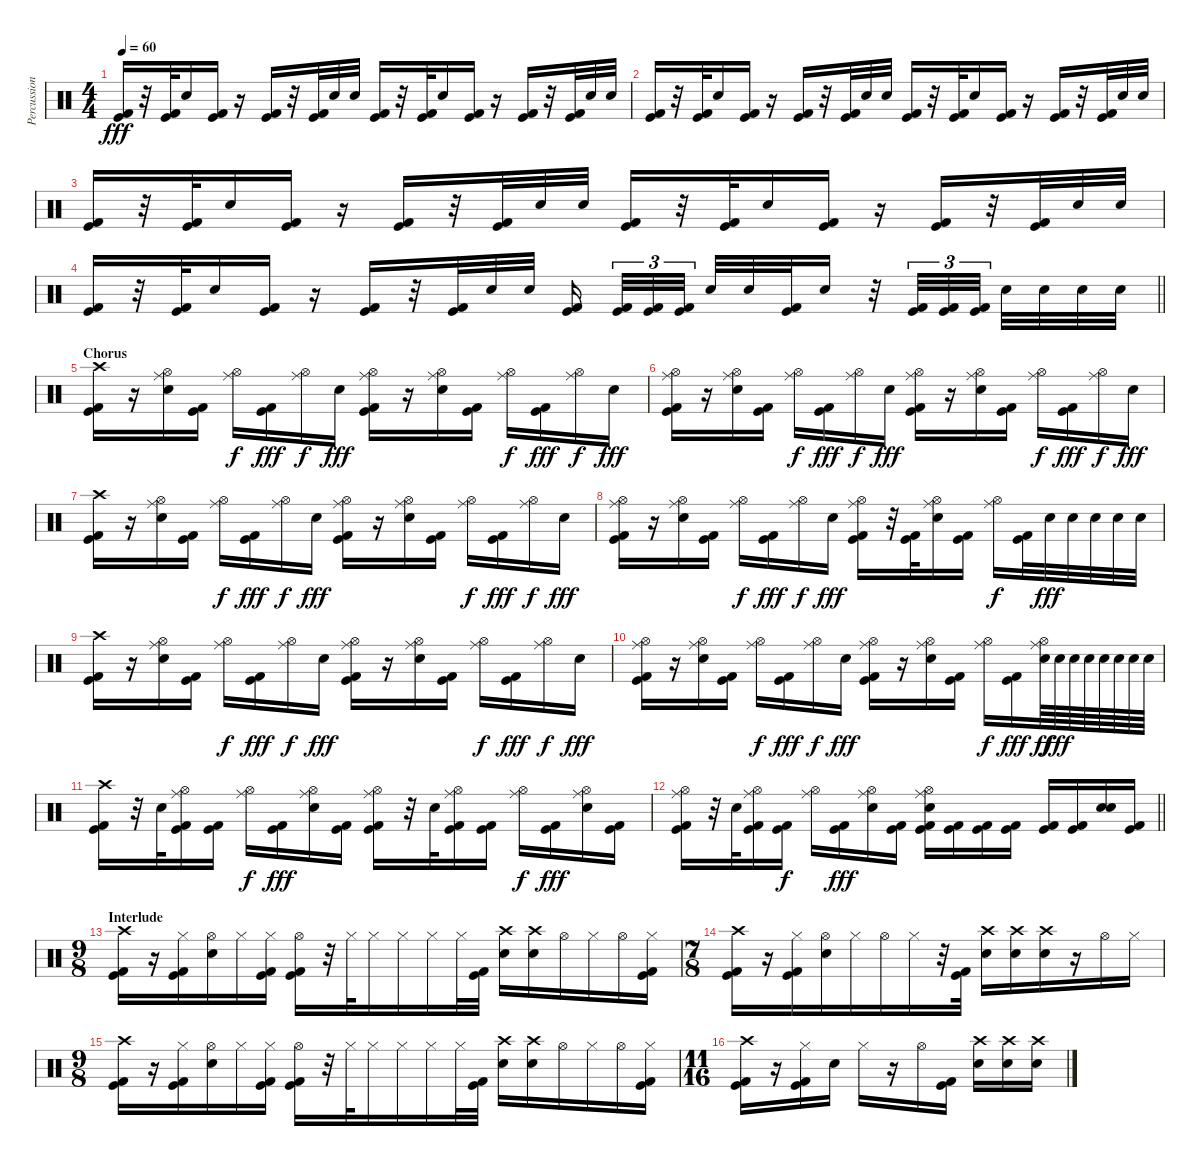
\track ("Percussion" "Percussion") {instrument percussion}
\staff {score}
\articulation defaults
\ts (4 4)
\tempo 60
\clef neutral
\ks c
("Kick (hit)" "Kick (hit) 2").16{dy fff} r.32 ("Kick (hit)" "Kick (hit) 2").32 "Electric Snare (hit)".16 ("Kick (hit)" "Kick (hit) 2").16 r.16 ("Kick (hit)" "Kick (hit) 2").16 r.32 ("Kick (hit)" "Kick (hit) 2").32 "Electric Snare (hit)".32 "Electric Snare (hit)".32 ("Kick (hit)" "Kick (hit) 2").16 r.32 ("Kick (hit)" "Kick (hit) 2").32 "Electric Snare (hit)".16 ("Kick (hit)" "Kick (hit) 2").16 r.16 ("Kick (hit)" "Kick (hit) 2").16 r.32 ("Kick (hit)" "Kick (hit) 2").32 "Electric Snare (hit)".32 "Electric Snare (hit)".32 |
("Kick (hit)" "Kick (hit) 2").16 r.32 ("Kick (hit)" "Kick (hit) 2").32 "Electric Snare (hit)".16 ("Kick (hit)" "Kick (hit) 2").16 r.16 ("Kick (hit)" "Kick (hit) 2").16 r.32 ("Kick (hit)" "Kick (hit) 2").32 "Electric Snare (hit)".32 "Electric Snare (hit)".32 ("Kick (hit)" "Kick (hit) 2").16 r.32 ("Kick (hit)" "Kick (hit) 2").32 "Electric Snare (hit)".16 ("Kick (hit)" "Kick (hit) 2").16 r.16 ("Kick (hit)" "Kick (hit) 2").16 r.32 ("Kick (hit)" "Kick (hit) 2").32 "Electric Snare (hit)".32 "Electric Snare (hit)".32 |
("Kick (hit)" "Kick (hit) 2").16 r.32 ("Kick (hit)" "Kick (hit) 2").32 "Electric Snare (hit)".16 ("Kick (hit)" "Kick (hit) 2").16 r.16 ("Kick (hit)" "Kick (hit) 2").16 r.32 ("Kick (hit)" "Kick (hit) 2").32 "Electric Snare (hit)".32 "Electric Snare (hit)".32 ("Kick (hit)" "Kick (hit) 2").16 r.32 ("Kick (hit)" "Kick (hit) 2").32 "Electric Snare (hit)".16 ("Kick (hit)" "Kick (hit) 2").16 r.16 ("Kick (hit)" "Kick (hit) 2").16 r.32 ("Kick (hit)" "Kick (hit) 2").32 "Electric Snare (hit)".32 "Electric Snare (hit)".32 |
\barLineRight lightlight
("Kick (hit)" "Kick (hit) 2").16 r.32 ("Kick (hit)" "Kick (hit) 2").32 "Electric Snare (hit)".16 ("Kick (hit)" "Kick (hit) 2").16 r.16 ("Kick (hit)" "Kick (hit) 2").16 r.32 ("Kick (hit)" "Kick (hit) 2").32 "Electric Snare (hit)".32 "Electric Snare (hit)".32 ("Kick (hit)" "Kick (hit) 2").16{beam splitsecondary} ("Kick (hit)" "Kick (hit) 2").32{tu (3 2)} ("Kick (hit)" "Kick (hit) 2").32{tu (3 2)} ("Kick (hit)" "Kick (hit) 2").32{tu (3 2) beam splitsecondary} "Electric Snare (hit)".32 "Electric Snare (hit)".32 ("Kick (hit)" "Kick (hit) 2").32 "Electric Snare (hit)".16 r.32 ("Kick (hit)" "Kick (hit) 2").32{tu (3 2)} ("Kick (hit)" "Kick (hit) 2").32{tu (3 2)} ("Kick (hit)" "Kick (hit) 2").32{tu (3 2) beam splitsecondary} "Electric Snare (hit)".32 "Electric Snare (hit)".32 "Electric Snare (hit)".32 "Electric Snare (hit)".32 |
\section ("" "Chorus")
("Crash high (hit)" "Kick (hit)" "Kick (hit) 2").16 r.16 ("Hi-Hat (open)" "Ride (middle)" "Electric Snare (hit)").16 ("Kick (hit)" "Kick (hit) 2").16 ("Hi-Hat (open)" "Ride (middle)").16{dy f} ("Kick (hit)" "Kick (hit) 2").16{dy fff} ("Hi-Hat (open)" "Ride (middle)").16{dy f} "Electric Snare (hit)".16{dy fff} ("Hi-Hat (open)" "Ride (middle)" "Kick (hit)" "Kick (hit) 2").16 r.16 ("Hi-Hat (open)" "Ride (middle)" "Electric Snare (hit)").16 ("Kick (hit)" "Kick (hit) 2").16 ("Hi-Hat (open)" "Ride (middle)").16{dy f} ("Kick (hit)" "Kick (hit) 2").16{dy fff} ("Hi-Hat (open)" "Ride (middle)").16{dy f} "Electric Snare (hit)".16{dy fff} |
("Hi-Hat (open)" "Ride (middle)" "Kick (hit)" "Kick (hit) 2").16 r.16 ("Hi-Hat (open)" "Ride (middle)" "Electric Snare (hit)").16 ("Kick (hit)" "Kick (hit) 2").16 ("Hi-Hat (open)" "Ride (middle)").16{dy f} ("Kick (hit)" "Kick (hit) 2").16{dy fff} ("Hi-Hat (open)" "Ride (middle)").16{dy f} "Electric Snare (hit)".16{dy fff} ("Hi-Hat (open)" "Ride (middle)" "Kick (hit)" "Kick (hit) 2").16 r.16 ("Hi-Hat (open)" "Ride (middle)" "Electric Snare (hit)").16 ("Kick (hit)" "Kick (hit) 2").16 ("Hi-Hat (open)" "Ride (middle)").16{dy f} ("Kick (hit)" "Kick (hit) 2").16{dy fff} ("Hi-Hat (open)" "Ride (middle)").16{dy f} "Electric Snare (hit)".16{dy fff} |
("Crash high (hit)" "Kick (hit)" "Kick (hit) 2").16 r.16 ("Hi-Hat (open)" "Ride (middle)" "Electric Snare (hit)").16 ("Kick (hit)" "Kick (hit) 2").16 ("Hi-Hat (open)" "Ride (middle)").16{dy f} ("Kick (hit)" "Kick (hit) 2").16{dy fff} ("Hi-Hat (open)" "Ride (middle)").16{dy f} "Electric Snare (hit)".16{dy fff} ("Hi-Hat (open)" "Ride (middle)" "Kick (hit)" "Kick (hit) 2").16 r.16 ("Hi-Hat (open)" "Ride (middle)" "Electric Snare (hit)").16 ("Kick (hit)" "Kick (hit) 2").16 ("Hi-Hat (open)" "Ride (middle)").16{dy f} ("Kick (hit)" "Kick (hit) 2").16{dy fff} ("Hi-Hat (open)" "Ride (middle)").16{dy f} "Electric Snare (hit)".16{dy fff} |
("Hi-Hat (open)" "Ride (middle)" "Kick (hit)" "Kick (hit) 2").16 r.16 ("Hi-Hat (open)" "Ride (middle)" "Electric Snare (hit)").16 ("Kick (hit)" "Kick (hit) 2").16 ("Hi-Hat (open)" "Ride (middle)").16{dy f} ("Kick (hit)" "Kick (hit) 2").16{dy fff} ("Hi-Hat (open)" "Ride (middle)").16{dy f} "Electric Snare (hit)".16{dy fff} ("Hi-Hat (open)" "Ride (middle)" "Kick (hit)" "Kick (hit) 2").16 r.32 ("Kick (hit)" "Kick (hit) 2").32 ("Hi-Hat (open)" "Ride (middle)" "Electric Snare (hit)").16 ("Kick (hit)" "Kick (hit) 2").16 ("Hi-Hat (open)" "Ride (middle)").16{dy f} ("Kick (hit)" "Kick (hit) 2").32 "Electric Snare (hit)".32{dy fff} "Electric Snare (hit)".32 "Electric Snare (hit)".32 "Electric Snare (hit)".32 "Electric Snare (hit)".32 |
("Crash high (hit)" "Kick (hit)" "Kick (hit) 2").16 r.16 ("Hi-Hat (open)" "Ride (middle)" "Electric Snare (hit)").16 ("Kick (hit)" "Kick (hit) 2").16 ("Hi-Hat (open)" "Ride (middle)").16{dy f} ("Kick (hit)" "Kick (hit) 2").16{dy fff} ("Hi-Hat (open)" "Ride (middle)").16{dy f} "Electric Snare (hit)".16{dy fff} ("Hi-Hat (open)" "Ride (middle)" "Kick (hit)" "Kick (hit) 2").16 r.16 ("Hi-Hat (open)" "Ride (middle)" "Electric Snare (hit)").16 ("Kick (hit)" "Kick (hit) 2").16 ("Hi-Hat (open)" "Ride (middle)").16{dy f} ("Kick (hit)" "Kick (hit) 2").16{dy fff} ("Hi-Hat (open)" "Ride (middle)").16{dy f} "Electric Snare (hit)".16{dy fff} |
("Hi-Hat (open)" "Ride (middle)" "Kick (hit)" "Kick (hit) 2").16 r.16 ("Hi-Hat (open)" "Ride (middle)" "Electric Snare (hit)").16 ("Kick (hit)" "Kick (hit) 2").16 ("Hi-Hat (open)" "Ride (middle)").16{dy f} ("Kick (hit)" "Kick (hit) 2").16{dy fff} ("Hi-Hat (open)" "Ride (middle)").16{dy f} "Electric Snare (hit)".16{dy fff} ("Hi-Hat (open)" "Ride (middle)" "Kick (hit)" "Kick (hit) 2").16 r.16 ("Hi-Hat (open)" "Ride (middle)" "Electric Snare (hit)").16 ("Kick (hit)" "Kick (hit) 2").16 ("Hi-Hat (open)" "Ride (middle)").16{dy f} ("Kick (hit)" "Kick (hit) 2").16{dy fff} ("Hi-Hat (open)" "Ride (middle)" "Electric Snare (hit)").64{dy ff} "Electric Snare (hit)".64{dy fff} "Electric Snare (hit)".64 "Electric Snare (hit)".64 "Electric Snare (hit)".64 "Electric Snare (hit)".64 "Electric Snare (hit)".64 "Electric Snare (hit)".64 |
("Crash high (hit)" "Kick (hit)" "Kick (hit) 2").16 r.32 "Electric Snare (hit)".32 ("Hi-Hat (open)" "Ride (middle)" "Kick (hit)" "Kick (hit) 2").16 ("Kick (hit)" "Kick (hit) 2").16 ("Hi-Hat (open)" "Ride (middle)").16{dy f} ("Kick (hit)" "Kick (hit) 2").16{dy fff} ("Hi-Hat (open)" "Ride (middle)" "Electric Snare (hit)").16 ("Kick (hit)" "Kick (hit) 2").16 ("Hi-Hat (open)" "Ride (middle)" "Kick (hit)" "Kick (hit) 2").16 r.32 "Electric Snare (hit)".32 ("Hi-Hat (open)" "Ride (middle)" "Kick (hit)" "Kick (hit) 2").16 ("Kick (hit)" "Kick (hit) 2").16 ("Hi-Hat (open)" "Ride (middle)").16{dy f} ("Kick (hit)" "Kick (hit) 2").16{dy fff} ("Hi-Hat (open)" "Ride (middle)" "Electric Snare (hit)").16 ("Kick (hit)" "Kick (hit) 2").16 |
\barLineRight lightlight
("Hi-Hat (open)" "Ride (middle)" "Kick (hit)" "Kick (hit) 2").16 r.32 "Electric Snare (hit)".32 ("Hi-Hat (open)" "Ride (middle)" "Kick (hit)" "Kick (hit) 2").16 ("Kick (hit)" "Kick (hit) 2").16{dy f} ("Hi-Hat (open)" "Ride (middle)").16 ("Kick (hit)" "Kick (hit) 2").16{dy fff} ("Hi-Hat (open)" "Ride (middle)" "Electric Snare (hit)").16 ("Kick (hit)" "Kick (hit) 2").16 ("Hi-Hat (open)" "Ride (middle)" "Electric Snare (hit)" "Kick (hit)" "Kick (hit) 2").16 ("Kick (hit)" "Kick (hit) 2").16 ("Kick (hit)" "Kick (hit) 2").16 ("Kick (hit)" "Kick (hit) 2").16 ("Kick (hit)" "Kick (hit) 2").16 ("Kick (hit)" "Kick (hit) 2").16 ("Electric Snare (hit)" "Electric Snare (hit)").16{bd 60} ("Kick (hit)" "Kick (hit) 2").16 |
\ts (9 8)
\section ("" "Interlude")
("Crash high (hit)" "Kick (hit)" "Kick (hit) 2").16 r.16 ("Hi-Hat (closed)" "Kick (hit)" "Kick (hit) 2").16 ("Hi-Hat (open)" "Electric Snare (hit)").16 "Hi-Hat (closed)".16 ("Hi-Hat (closed)" "Kick (hit)" "Kick (hit) 2").16 ("Hi-Hat (open)" "Kick (hit)" "Kick (hit) 2").16 r.32 "Hi-Hat (closed)".32 "Hi-Hat (closed)".16 "Hi-Hat (closed)".16 "Hi-Hat (closed)".16 "Hi-Hat (closed)".32 ("Kick (hit)" "Kick (hit) 2").32 ("Crash high (hit)" "Electric Snare (hit)").16 ("Crash high (hit)" "Electric Snare (hit)").16 "Hi-Hat (open)".16 "Hi-Hat (closed)".16 "Hi-Hat (open)".16 ("Hi-Hat (closed)" "Kick (hit)" "Kick (hit) 2").16 |
\ts (7 8)
("Crash high (hit)" "Kick (hit)" "Kick (hit) 2").16 r.16 ("Hi-Hat (closed)" "Kick (hit)" "Kick (hit) 2").16 ("Hi-Hat (open)" "Electric Snare (hit)").16 "Hi-Hat (closed)".16 "Hi-Hat (open)".16 "Hi-Hat (closed)".16 r.32 ("Kick (hit)" "Kick (hit) 2").32 ("Crash high (hit)" "Electric Snare (hit)").16 ("Crash high (hit)" "Electric Snare (hit)").16 ("Crash high (hit)" "Electric Snare (hit)").16 r.16 "Hi-Hat (open)".16 "Hi-Hat (closed)".16 |
\ts (9 8)
("Crash high (hit)" "Kick (hit)" "Kick (hit) 2").16 r.16 ("Hi-Hat (closed)" "Kick (hit)" "Kick (hit) 2").16 ("Hi-Hat (open)" "Electric Snare (hit)").16 "Hi-Hat (closed)".16 ("Hi-Hat (closed)" "Kick (hit)" "Kick (hit) 2").16 ("Hi-Hat (open)" "Kick (hit)" "Kick (hit) 2").16 r.32 "Hi-Hat (closed)".32 "Hi-Hat (closed)".16 "Hi-Hat (closed)".16 "Hi-Hat (closed)".16 "Hi-Hat (closed)".32 ("Kick (hit)" "Kick (hit) 2").32 ("Crash high (hit)" "Electric Snare (hit)").16 ("Crash high (hit)" "Electric Snare (hit)").16 "Hi-Hat (open)".16 "Hi-Hat (closed)".16 "Hi-Hat (open)".16 ("Hi-Hat (closed)" "Kick (hit)" "Kick (hit) 2").16 |
\ts (11 16)
("Crash high (hit)" "Kick (hit)" "Kick (hit) 2").16 r.16 ("Hi-Hat (closed)" "Kick (hit)" "Kick (hit) 2").16 "Electric Snare (hit)".16 "Hi-Hat (closed)".16 r.16 "Hi-Hat (open)".16 ("Kick (hit)" "Kick (hit) 2").16 ("Crash high (hit)" "Electric Snare (hit)").16 ("Crash high (hit)" "Electric Snare (hit)").16 ("Crash high (hit)" "Electric Snare (hit)").16
